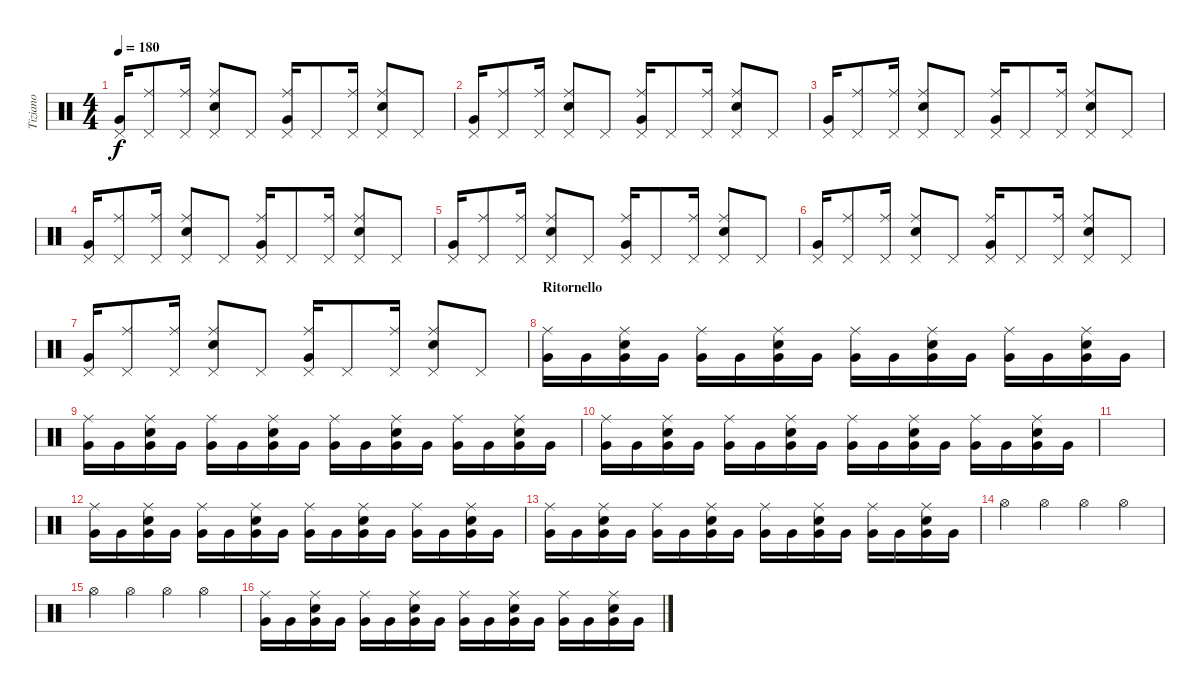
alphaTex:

\track ("Tiziano" "Tiziano") {instrument percussion}
\staff {score}
\articulation defaults
\ts (4 4)
\tempo 180
\clef neutral
\ks c
("Pedal Hi-Hat (hit)" "Very Low Tom (hit)").16{dy f} ("Pedal Hi-Hat (hit)" "Ride (middle)").8 ("Pedal Hi-Hat (hit)" "Ride (middle)").16 ("Pedal Hi-Hat (hit)" "Ride (middle)" "Snare (hit) 2").8 "Pedal Hi-Hat (hit)".8 ("Pedal Hi-Hat (hit)" "Ride (middle)" "Very Low Tom (hit)").16 "Pedal Hi-Hat (hit)".8 ("Pedal Hi-Hat (hit)" "Ride (middle)").16 ("Pedal Hi-Hat (hit)" "Ride (middle)" "Snare (hit) 2").8 "Pedal Hi-Hat (hit)".8 |
("Pedal Hi-Hat (hit)" "Very Low Tom (hit)").16 ("Pedal Hi-Hat (hit)" "Ride (middle)").8 ("Pedal Hi-Hat (hit)" "Ride (middle)").16 ("Pedal Hi-Hat (hit)" "Ride (middle)" "Snare (hit) 2").8 "Pedal Hi-Hat (hit)".8 ("Pedal Hi-Hat (hit)" "Ride (middle)" "Very Low Tom (hit)").16 "Pedal Hi-Hat (hit)".8 ("Pedal Hi-Hat (hit)" "Ride (middle)").16 ("Pedal Hi-Hat (hit)" "Ride (middle)" "Snare (hit) 2").8 "Pedal Hi-Hat (hit)".8 |
("Pedal Hi-Hat (hit)" "Very Low Tom (hit)").16 ("Pedal Hi-Hat (hit)" "Ride (middle)").8 ("Pedal Hi-Hat (hit)" "Ride (middle)").16 ("Pedal Hi-Hat (hit)" "Ride (middle)" "Snare (hit) 2").8 "Pedal Hi-Hat (hit)".8 ("Pedal Hi-Hat (hit)" "Ride (middle)" "Very Low Tom (hit)").16 "Pedal Hi-Hat (hit)".8 ("Pedal Hi-Hat (hit)" "Ride (middle)").16 ("Pedal Hi-Hat (hit)" "Ride (middle)" "Snare (hit) 2").8 "Pedal Hi-Hat (hit)".8 |
("Pedal Hi-Hat (hit)" "Very Low Tom (hit)").16 ("Pedal Hi-Hat (hit)" "Ride (middle)").8 ("Pedal Hi-Hat (hit)" "Ride (middle)").16 ("Pedal Hi-Hat (hit)" "Ride (middle)" "Snare (hit) 2").8 "Pedal Hi-Hat (hit)".8 ("Pedal Hi-Hat (hit)" "Ride (middle)" "Very Low Tom (hit)").16 "Pedal Hi-Hat (hit)".8 ("Pedal Hi-Hat (hit)" "Ride (middle)").16 ("Pedal Hi-Hat (hit)" "Ride (middle)" "Snare (hit) 2").8 "Pedal Hi-Hat (hit)".8 |
("Pedal Hi-Hat (hit)" "Very Low Tom (hit)").16 ("Pedal Hi-Hat (hit)" "Ride (middle)").8 ("Pedal Hi-Hat (hit)" "Ride (middle)").16 ("Pedal Hi-Hat (hit)" "Ride (middle)" "Snare (hit) 2").8 "Pedal Hi-Hat (hit)".8 ("Pedal Hi-Hat (hit)" "Ride (middle)" "Very Low Tom (hit)").16 "Pedal Hi-Hat (hit)".8 ("Pedal Hi-Hat (hit)" "Ride (middle)").16 ("Pedal Hi-Hat (hit)" "Ride (middle)" "Snare (hit) 2").8 "Pedal Hi-Hat (hit)".8 |
("Pedal Hi-Hat (hit)" "Very Low Tom (hit)").16 ("Pedal Hi-Hat (hit)" "Ride (middle)").8 ("Pedal Hi-Hat (hit)" "Ride (middle)").16 ("Pedal Hi-Hat (hit)" "Ride (middle)" "Snare (hit) 2").8 "Pedal Hi-Hat (hit)".8 ("Pedal Hi-Hat (hit)" "Ride (middle)" "Very Low Tom (hit)").16 "Pedal Hi-Hat (hit)".8 ("Pedal Hi-Hat (hit)" "Ride (middle)").16 ("Pedal Hi-Hat (hit)" "Ride (middle)" "Snare (hit) 2").8 "Pedal Hi-Hat (hit)".8 |
("Pedal Hi-Hat (hit)" "Very Low Tom (hit)").16 ("Pedal Hi-Hat (hit)" "Ride (middle)").8 ("Pedal Hi-Hat (hit)" "Ride (middle)").16 ("Pedal Hi-Hat (hit)" "Ride (middle)" "Snare (hit) 2").8 "Pedal Hi-Hat (hit)".8 ("Pedal Hi-Hat (hit)" "Ride (middle)" "Very Low Tom (hit)").16 "Pedal Hi-Hat (hit)".8 ("Pedal Hi-Hat (hit)" "Ride (middle)").16 ("Pedal Hi-Hat (hit)" "Ride (middle)" "Snare (hit) 2").8 "Pedal Hi-Hat (hit)".8 |
\section ("" "Ritornello")
("Very Low Tom (hit)" "Ride (middle)").16 "Very Low Tom (hit)".16 ("Very Low Tom (hit)" "Snare (hit) 2" "Ride (middle)").16 "Very Low Tom (hit)".16 ("Very Low Tom (hit)" "Ride (middle)").16 "Very Low Tom (hit)".16 ("Very Low Tom (hit)" "Snare (hit) 2" "Ride (middle)").16 "Very Low Tom (hit)".16 ("Very Low Tom (hit)" "Ride (middle)").16 "Very Low Tom (hit)".16 ("Very Low Tom (hit)" "Snare (hit) 2" "Ride (middle)").16 "Very Low Tom (hit)".16 ("Very Low Tom (hit)" "Ride (middle)").16 "Very Low Tom (hit)".16 ("Very Low Tom (hit)" "Snare (hit) 2" "Ride (middle)").16 "Very Low Tom (hit)".16 |
("Very Low Tom (hit)" "Ride (middle)").16 "Very Low Tom (hit)".16 ("Very Low Tom (hit)" "Snare (hit) 2" "Ride (middle)").16 "Very Low Tom (hit)".16 ("Very Low Tom (hit)" "Ride (middle)").16 "Very Low Tom (hit)".16 ("Very Low Tom (hit)" "Snare (hit) 2" "Ride (middle)").16 "Very Low Tom (hit)".16 ("Very Low Tom (hit)" "Ride (middle)").16 "Very Low Tom (hit)".16 ("Very Low Tom (hit)" "Snare (hit) 2" "Ride (middle)").16 "Very Low Tom (hit)".16 ("Very Low Tom (hit)" "Ride (middle)").16 "Very Low Tom (hit)".16 ("Very Low Tom (hit)" "Snare (hit) 2" "Ride (middle)").16 "Very Low Tom (hit)".16 |
("Very Low Tom (hit)" "Ride (middle)").16 "Very Low Tom (hit)".16 ("Very Low Tom (hit)" "Snare (hit) 2" "Ride (middle)").16 "Very Low Tom (hit)".16 ("Very Low Tom (hit)" "Ride (middle)").16 "Very Low Tom (hit)".16 ("Very Low Tom (hit)" "Snare (hit) 2" "Ride (middle)").16 "Very Low Tom (hit)".16 ("Very Low Tom (hit)" "Ride (middle)").16 "Very Low Tom (hit)".16 ("Very Low Tom (hit)" "Snare (hit) 2" "Ride (middle)").16 "Very Low Tom (hit)".16 ("Very Low Tom (hit)" "Ride (middle)").16 "Very Low Tom (hit)".16 ("Very Low Tom (hit)" "Snare (hit) 2" "Ride (middle)").16 "Very Low Tom (hit)".16 |
|
("Very Low Tom (hit)" "Ride (middle)").16 "Very Low Tom (hit)".16 ("Very Low Tom (hit)" "Snare (hit) 2" "Ride (middle)").16 "Very Low Tom (hit)".16 ("Very Low Tom (hit)" "Ride (middle)").16 "Very Low Tom (hit)".16 ("Very Low Tom (hit)" "Snare (hit) 2" "Ride (middle)").16 "Very Low Tom (hit)".16 ("Very Low Tom (hit)" "Ride (middle)").16 "Very Low Tom (hit)".16 ("Very Low Tom (hit)" "Snare (hit) 2" "Ride (middle)").16 "Very Low Tom (hit)".16 ("Very Low Tom (hit)" "Ride (middle)").16 "Very Low Tom (hit)".16 ("Very Low Tom (hit)" "Snare (hit) 2" "Ride (middle)").16 "Very Low Tom (hit)".16 |
("Very Low Tom (hit)" "Ride (middle)").16 "Very Low Tom (hit)".16 ("Very Low Tom (hit)" "Snare (hit) 2" "Ride (middle)").16 "Very Low Tom (hit)".16 ("Very Low Tom (hit)" "Ride (middle)").16 "Very Low Tom (hit)".16 ("Very Low Tom (hit)" "Snare (hit) 2" "Ride (middle)").16 "Very Low Tom (hit)".16 ("Very Low Tom (hit)" "Ride (middle)").16 "Very Low Tom (hit)".16 ("Very Low Tom (hit)" "Snare (hit) 2" "Ride (middle)").16 "Very Low Tom (hit)".16 ("Very Low Tom (hit)" "Ride (middle)").16 "Very Low Tom (hit)".16 ("Very Low Tom (hit)" "Snare (hit) 2" "Ride (middle)").16 "Very Low Tom (hit)".16 |
"Hi-Hat (open)".4 "Hi-Hat (open)".4 "Hi-Hat (open)".4 "Hi-Hat (open)".4 |
"Hi-Hat (open)".4 "Hi-Hat (open)".4 "Hi-Hat (open)".4 "Hi-Hat (open)".4 |
("Very Low Tom (hit)" "Ride (middle)").16 "Very Low Tom (hit)".16 ("Very Low Tom (hit)" "Snare (hit) 2" "Ride (middle)").16 "Very Low Tom (hit)".16 ("Very Low Tom (hit)" "Ride (middle)").16 "Very Low Tom (hit)".16 ("Very Low Tom (hit)" "Snare (hit) 2" "Ride (middle)").16 "Very Low Tom (hit)".16 ("Very Low Tom (hit)" "Ride (middle)").16 "Very Low Tom (hit)".16 ("Very Low Tom (hit)" "Snare (hit) 2" "Ride (middle)").16 "Very Low Tom (hit)".16 ("Very Low Tom (hit)" "Ride (middle)").16 "Very Low Tom (hit)".16 ("Very Low Tom (hit)" "Snare (hit) 2" "Ride (middle)").16 "Very Low Tom (hit)".16
